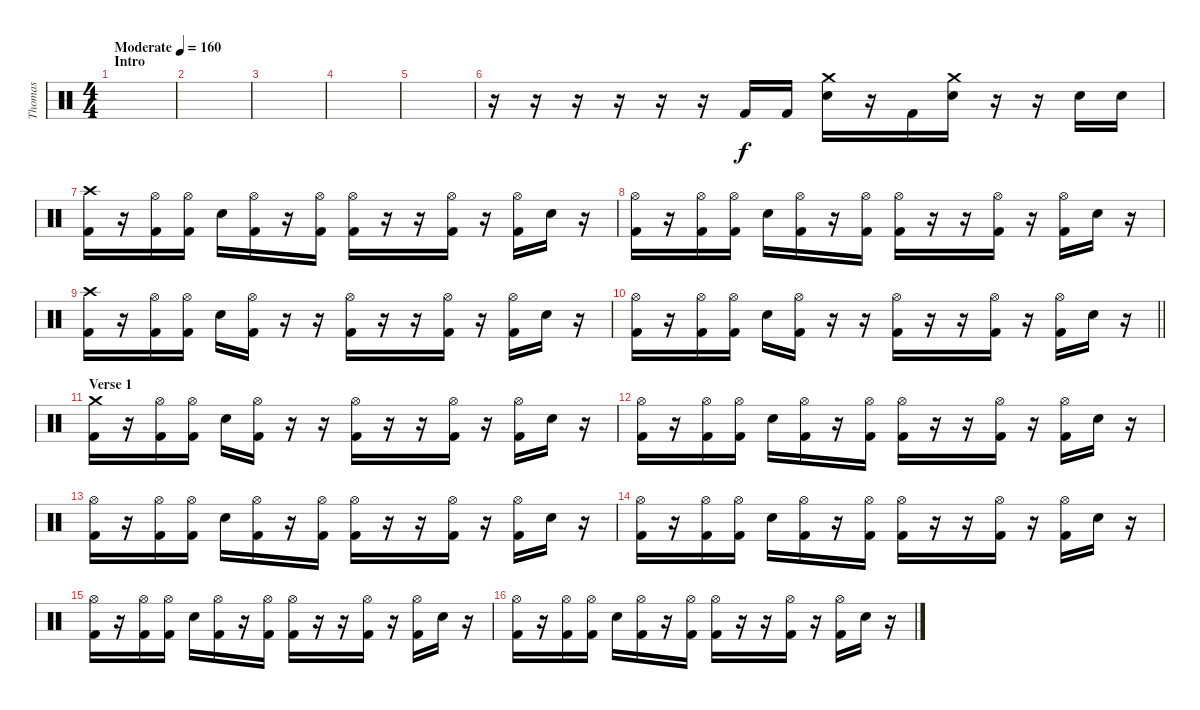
\track ("Thomas " "Thomas ") {instrument percussion}
\staff {score}
\articulation defaults
\ts (4 4)
\section ("" "Intro")
\tempo (160 "Moderate")
\clef neutral
\ks c
|
|
|
|
|
r.16 r.16 r.16 r.16 r.16 r.16 "Kick (hit) 2".16 "Kick (hit) 2".16 ("Crash medium (hit)" "Electric Snare (hit)").16 r.16 "Kick (hit) 2".16 ("Crash medium (hit)" "Electric Snare (hit)").16 r.16 r.16 "Electric Snare (hit)".16 "Electric Snare (hit)".16 |
("Crash high (hit)" "Kick (hit) 2").16 r.16 ("Hi-Hat (open)" "Kick (hit) 2").16 ("Hi-Hat (open)" "Kick (hit) 2").16 "Electric Snare (hit)".16 ("Hi-Hat (open)" "Kick (hit) 2").16 r.16 ("Hi-Hat (open)" "Kick (hit) 2").16 ("Hi-Hat (open)" "Kick (hit) 2").16 r.16 r.16 ("Hi-Hat (open)" "Kick (hit) 2").16 r.16 ("Hi-Hat (open)" "Kick (hit) 2").16 "Electric Snare (hit)".16 r.16 |
("Hi-Hat (open)" "Kick (hit) 2").16 r.16 ("Hi-Hat (open)" "Kick (hit) 2").16 ("Hi-Hat (open)" "Kick (hit) 2").16 "Electric Snare (hit)".16 ("Hi-Hat (open)" "Kick (hit) 2").16 r.16 ("Hi-Hat (open)" "Kick (hit) 2").16 ("Hi-Hat (open)" "Kick (hit) 2").16 r.16 r.16 ("Hi-Hat (open)" "Kick (hit) 2").16 r.16 ("Hi-Hat (open)" "Kick (hit) 2").16 "Electric Snare (hit)".16 r.16 |
("Crash high (hit)" "Kick (hit) 2").16 r.16 ("Hi-Hat (open)" "Kick (hit) 2").16 ("Hi-Hat (open)" "Kick (hit) 2").16 "Electric Snare (hit)".16 ("Hi-Hat (open)" "Kick (hit) 2").16 r.16 r.16 ("Hi-Hat (open)" "Kick (hit) 2").16 r.16 r.16 ("Hi-Hat (open)" "Kick (hit) 2").16 r.16 ("Hi-Hat (open)" "Kick (hit) 2").16 "Electric Snare (hit)".16 r.16 |
\barLineRight lightlight
("Hi-Hat (open)" "Kick (hit) 2").16 r.16 ("Hi-Hat (open)" "Kick (hit) 2").16 ("Hi-Hat (open)" "Kick (hit) 2").16 "Electric Snare (hit)".16 ("Hi-Hat (open)" "Kick (hit) 2").16 r.16 r.16 ("Hi-Hat (open)" "Kick (hit) 2").16 r.16 r.16 ("Hi-Hat (open)" "Kick (hit) 2").16 r.16 ("Hi-Hat (open)" "Kick (hit) 2").16 "Electric Snare (hit)".16 r.16 |
\section ("" "Verse 1")
("Crash medium (hit)" "Kick (hit) 2").16 r.16 ("Hi-Hat (open)" "Kick (hit) 2").16 ("Hi-Hat (open)" "Kick (hit) 2").16 "Electric Snare (hit)".16 ("Hi-Hat (open)" "Kick (hit) 2").16 r.16 r.16 ("Hi-Hat (open)" "Kick (hit) 2").16 r.16 r.16 ("Hi-Hat (open)" "Kick (hit) 2").16 r.16 ("Hi-Hat (open)" "Kick (hit) 2").16 "Electric Snare (hit)".16 r.16 |
("Hi-Hat (open)" "Kick (hit) 2").16 r.16 ("Hi-Hat (open)" "Kick (hit) 2").16 ("Hi-Hat (open)" "Kick (hit) 2").16 "Electric Snare (hit)".16 ("Hi-Hat (open)" "Kick (hit) 2").16 r.16 ("Hi-Hat (open)" "Kick (hit) 2").16 ("Hi-Hat (open)" "Kick (hit) 2").16 r.16 r.16 ("Hi-Hat (open)" "Kick (hit) 2").16 r.16 ("Hi-Hat (open)" "Kick (hit) 2").16 "Electric Snare (hit)".16 r.16 |
("Hi-Hat (open)" "Kick (hit) 2").16 r.16 ("Hi-Hat (open)" "Kick (hit) 2").16 ("Hi-Hat (open)" "Kick (hit) 2").16 "Electric Snare (hit)".16 ("Hi-Hat (open)" "Kick (hit) 2").16 r.16 ("Hi-Hat (open)" "Kick (hit) 2").16 ("Hi-Hat (open)" "Kick (hit) 2").16 r.16 r.16 ("Hi-Hat (open)" "Kick (hit) 2").16 r.16 ("Hi-Hat (open)" "Kick (hit) 2").16 "Electric Snare (hit)".16 r.16 |
("Hi-Hat (open)" "Kick (hit) 2").16 r.16 ("Hi-Hat (open)" "Kick (hit) 2").16 ("Hi-Hat (open)" "Kick (hit) 2").16 "Electric Snare (hit)".16 ("Hi-Hat (open)" "Kick (hit) 2").16 r.16 ("Hi-Hat (open)" "Kick (hit) 2").16 ("Hi-Hat (open)" "Kick (hit) 2").16 r.16 r.16 ("Hi-Hat (open)" "Kick (hit) 2").16 r.16 ("Hi-Hat (open)" "Kick (hit) 2").16 "Electric Snare (hit)".16 r.16 |
("Hi-Hat (open)" "Kick (hit) 2").16 r.16 ("Hi-Hat (open)" "Kick (hit) 2").16 ("Hi-Hat (open)" "Kick (hit) 2").16 "Electric Snare (hit)".16 ("Hi-Hat (open)" "Kick (hit) 2").16 r.16 ("Hi-Hat (open)" "Kick (hit) 2").16 ("Hi-Hat (open)" "Kick (hit) 2").16 r.16 r.16 ("Hi-Hat (open)" "Kick (hit) 2").16 r.16 ("Hi-Hat (open)" "Kick (hit) 2").16 "Electric Snare (hit)".16 r.16 |
("Hi-Hat (open)" "Kick (hit) 2").16 r.16 ("Hi-Hat (open)" "Kick (hit) 2").16 ("Hi-Hat (open)" "Kick (hit) 2").16 "Electric Snare (hit)".16 ("Hi-Hat (open)" "Kick (hit) 2").16 r.16 ("Hi-Hat (open)" "Kick (hit) 2").16 ("Hi-Hat (open)" "Kick (hit) 2").16 r.16 r.16 ("Hi-Hat (open)" "Kick (hit) 2").16 r.16 ("Hi-Hat (open)" "Kick (hit) 2").16 "Electric Snare (hit)".16 r.16
